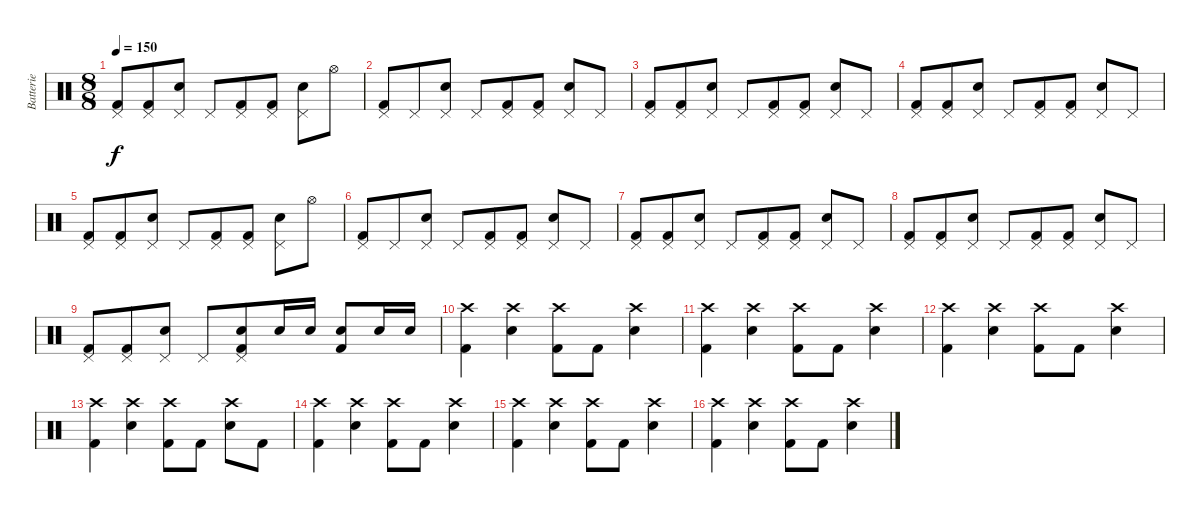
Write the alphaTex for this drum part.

\track ("Batterie" "Batterie") {instrument percussion}
\staff {score}
\articulation defaults
\ts (8 8)
\tempo 150
\clef neutral
\ks c
("Pedal Hi-Hat (hit)" "Kick (hit) 2").8{dy f} ("Pedal Hi-Hat (hit)" "Kick (hit) 2").8 ("Pedal Hi-Hat (hit)" "Snare (hit) 2").8 "Pedal Hi-Hat (hit)".8 ("Pedal Hi-Hat (hit)" "Kick (hit) 2").8 ("Pedal Hi-Hat (hit)" "Kick (hit) 2").8 ("Pedal Hi-Hat (hit)" "Snare (hit) 2").8 "Hi-Hat (open)".8 |
("Pedal Hi-Hat (hit)" "Kick (hit) 2").8 "Pedal Hi-Hat (hit)".8 ("Pedal Hi-Hat (hit)" "Snare (hit) 2").8 "Pedal Hi-Hat (hit)".8 ("Pedal Hi-Hat (hit)" "Kick (hit) 2").8 ("Pedal Hi-Hat (hit)" "Kick (hit) 2").8 ("Pedal Hi-Hat (hit)" "Snare (hit) 2").8 "Pedal Hi-Hat (hit)".8 |
("Pedal Hi-Hat (hit)" "Kick (hit) 2").8 ("Pedal Hi-Hat (hit)" "Kick (hit) 2").8 ("Pedal Hi-Hat (hit)" "Snare (hit) 2").8 "Pedal Hi-Hat (hit)".8 ("Pedal Hi-Hat (hit)" "Kick (hit) 2").8 ("Pedal Hi-Hat (hit)" "Kick (hit) 2").8 ("Pedal Hi-Hat (hit)" "Snare (hit) 2").8 "Pedal Hi-Hat (hit)".8 |
("Pedal Hi-Hat (hit)" "Kick (hit) 2").8 ("Pedal Hi-Hat (hit)" "Kick (hit) 2").8 ("Pedal Hi-Hat (hit)" "Snare (hit) 2").8 "Pedal Hi-Hat (hit)".8 ("Pedal Hi-Hat (hit)" "Kick (hit) 2").8 ("Pedal Hi-Hat (hit)" "Kick (hit) 2").8 ("Pedal Hi-Hat (hit)" "Snare (hit) 2").8 "Pedal Hi-Hat (hit)".8 |
("Pedal Hi-Hat (hit)" "Kick (hit) 2").8 ("Pedal Hi-Hat (hit)" "Kick (hit) 2").8 ("Pedal Hi-Hat (hit)" "Snare (hit) 2").8 "Pedal Hi-Hat (hit)".8 ("Pedal Hi-Hat (hit)" "Kick (hit) 2").8 ("Pedal Hi-Hat (hit)" "Kick (hit) 2").8 ("Pedal Hi-Hat (hit)" "Snare (hit) 2").8 "Hi-Hat (open)".8 |
("Pedal Hi-Hat (hit)" "Kick (hit) 2").8 "Pedal Hi-Hat (hit)".8 ("Pedal Hi-Hat (hit)" "Snare (hit) 2").8 "Pedal Hi-Hat (hit)".8 ("Pedal Hi-Hat (hit)" "Kick (hit) 2").8 ("Pedal Hi-Hat (hit)" "Kick (hit) 2").8 ("Pedal Hi-Hat (hit)" "Snare (hit) 2").8 "Pedal Hi-Hat (hit)".8 |
("Pedal Hi-Hat (hit)" "Kick (hit) 2").8 ("Pedal Hi-Hat (hit)" "Kick (hit) 2").8 ("Pedal Hi-Hat (hit)" "Snare (hit) 2").8 "Pedal Hi-Hat (hit)".8 ("Pedal Hi-Hat (hit)" "Kick (hit) 2").8 ("Pedal Hi-Hat (hit)" "Kick (hit) 2").8 ("Pedal Hi-Hat (hit)" "Snare (hit) 2").8 "Pedal Hi-Hat (hit)".8 |
("Pedal Hi-Hat (hit)" "Kick (hit) 2").8 ("Pedal Hi-Hat (hit)" "Kick (hit) 2").8 ("Pedal Hi-Hat (hit)" "Snare (hit) 2").8 "Pedal Hi-Hat (hit)".8 ("Pedal Hi-Hat (hit)" "Kick (hit) 2").8 ("Pedal Hi-Hat (hit)" "Kick (hit) 2").8 ("Pedal Hi-Hat (hit)" "Snare (hit) 2").8 "Pedal Hi-Hat (hit)".8 |
("Pedal Hi-Hat (hit)" "Kick (hit) 2").8 ("Pedal Hi-Hat (hit)" "Kick (hit) 2").8 ("Pedal Hi-Hat (hit)" "Snare (hit) 2").8 "Pedal Hi-Hat (hit)".8 ("Pedal Hi-Hat (hit)" "Snare (hit) 2" "Kick (hit) 2").8 "Snare (hit) 2".16 "Snare (hit) 2".16 ("Snare (hit) 2" "Kick (hit) 2").8 "Snare (hit) 2".16 "Snare (hit) 2".16 |
("Crash high (hit)" "Kick (hit) 2").4 ("Crash high (hit)" "Snare (hit) 2").4 ("Crash high (hit)" "Kick (hit) 2").8 "Kick (hit) 2".8 ("Crash high (hit)" "Snare (hit) 2").4 |
("Crash high (hit)" "Kick (hit) 2").4 ("Crash high (hit)" "Snare (hit) 2").4 ("Crash high (hit)" "Kick (hit) 2").8 "Kick (hit) 2".8 ("Crash high (hit)" "Snare (hit) 2").4 |
("Crash high (hit)" "Kick (hit) 2").4 ("Crash high (hit)" "Snare (hit) 2").4 ("Crash high (hit)" "Kick (hit) 2").8 "Kick (hit) 2".8 ("Crash high (hit)" "Snare (hit) 2").4 |
("Crash high (hit)" "Kick (hit) 2").4 ("Crash high (hit)" "Snare (hit) 2").4 ("Crash high (hit)" "Kick (hit) 2").8 "Kick (hit) 2".8 ("Crash high (hit)" "Snare (hit) 2").8 "Kick (hit) 2".8 |
("Crash high (hit)" "Kick (hit) 2").4 ("Crash high (hit)" "Snare (hit) 2").4 ("Crash high (hit)" "Kick (hit) 2").8 "Kick (hit) 2".8 ("Crash high (hit)" "Snare (hit) 2").4 |
("Crash high (hit)" "Kick (hit) 2").4 ("Crash high (hit)" "Snare (hit) 2").4 ("Crash high (hit)" "Kick (hit) 2").8 "Kick (hit) 2".8 ("Crash high (hit)" "Snare (hit) 2").4 |
("Crash high (hit)" "Kick (hit) 2").4 ("Crash high (hit)" "Snare (hit) 2").4 ("Crash high (hit)" "Kick (hit) 2").8 "Kick (hit) 2".8 ("Crash high (hit)" "Snare (hit) 2").4
